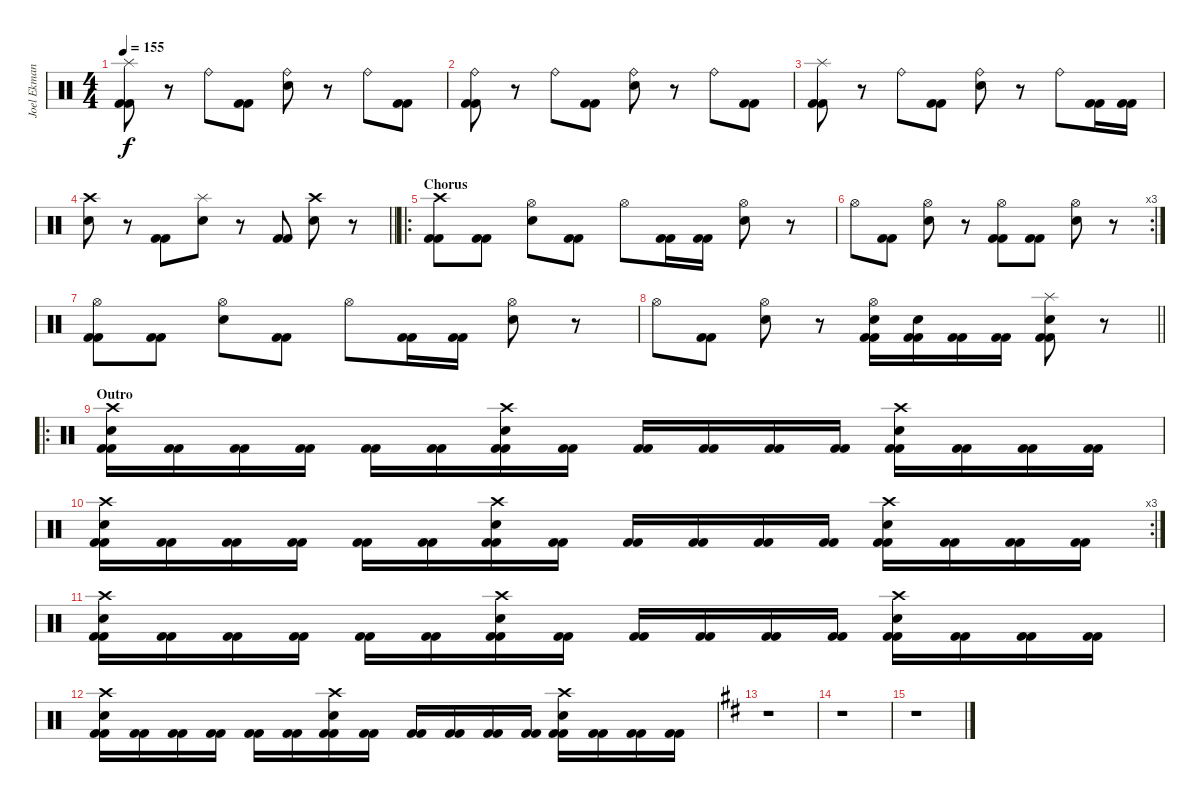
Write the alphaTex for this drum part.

\track ("Joel Ekman-percussion tab" "Joel Ekman") {instrument percussion}
\staff {score}
\articulation defaults
\ts (4 4)
\tempo 155
\clef neutral
\ks c
("Splash (hit)" "Kick (hit) 2" "Kick (hit) 2").8{dy f} r.8 "Ride (bell)".8 ("Kick (hit) 2" "Kick (hit) 2").8 ("Ride (bell)" "Snare (hit) 2").8 r.8 "Ride (bell)".8 ("Kick (hit) 2" "Kick (hit) 2").8 |
("Ride (bell)" "Kick (hit) 2" "Kick (hit) 2").8 r.8 "Ride (bell)".8 ("Kick (hit) 2" "Kick (hit) 2").8 ("Ride (bell)" "Snare (hit) 2").8 r.8 "Ride (bell)".8 ("Kick (hit) 2" "Kick (hit) 2").8 |
("Splash (hit)" "Kick (hit) 2" "Kick (hit) 2").8 r.8 "Ride (bell)".8 ("Kick (hit) 2" "Kick (hit) 2").8 ("Ride (bell)" "Snare (hit) 2").8 r.8 "Ride (bell)".8 ("Kick (hit) 2" "Kick (hit) 2").16 ("Kick (hit) 2" "Kick (hit) 2").16 |
\barLineRight lightlight
("Crash high (hit)" "Snare (hit) 2").8 r.8 ("Kick (hit) 2" "Kick (hit) 2").8 ("Splash (hit)" "Snare (hit) 2").8 r.8 ("Kick (hit) 2" "Kick (hit) 2").8 ("Crash high (hit)" "Snare (hit) 2").8 r.8 |
\ro
\section ("" "Chorus")
("Crash high (hit)" "Kick (hit) 2" "Kick (hit) 2").8 ("Kick (hit) 2" "Kick (hit) 2").8 ("Hi-Hat (open)" "Snare (hit) 2").8 ("Kick (hit) 2" "Kick (hit) 2").8 "Hi-Hat (open)".8 ("Kick (hit) 2" "Kick (hit) 2").16 ("Kick (hit) 2" "Kick (hit) 2").16 ("Hi-Hat (open)" "Snare (hit) 2").8 r.8 |
\rc 3 "Hi-Hat (open)".8
("Kick (hit) 2" "Kick (hit) 2").8 ("Hi-Hat (open)" "Snare (hit) 2").8 r.8 ("Hi-Hat (open)" "Kick (hit) 2" "Kick (hit) 2").8 ("Kick (hit) 2" "Kick (hit) 2").8 ("Hi-Hat (open)" "Snare (hit) 2").8 r.8 |
("Hi-Hat (open)" "Kick (hit) 2" "Kick (hit) 2").8 ("Kick (hit) 2" "Kick (hit) 2").8 ("Hi-Hat (open)" "Snare (hit) 2").8 ("Kick (hit) 2" "Kick (hit) 2").8 "Hi-Hat (open)".8 ("Kick (hit) 2" "Kick (hit) 2").16 ("Kick (hit) 2" "Kick (hit) 2").16 ("Hi-Hat (open)" "Snare (hit) 2").8 r.8 |
\barLineRight lightlight "Hi-Hat (open)".8
("Kick (hit) 2" "Kick (hit) 2").8 ("Hi-Hat (open)" "Snare (hit) 2").8 r.8 ("Hi-Hat (open)" "Snare (hit) 2" "Kick (hit) 2" "Kick (hit) 2").16 ("Snare (hit) 2" "Kick (hit) 2" "Kick (hit) 2").16 ("Kick (hit) 2" "Kick (hit) 2").16 ("Kick (hit) 2" "Kick (hit) 2").16 ("Splash (hit)" "Snare (hit) 2" "Kick (hit) 2" "Kick (hit) 2").8 r.8 |
\ro
\section ("" "Outro")
("Crash high (hit)" "Snare (hit) 2" "Kick (hit) 2" "Kick (hit) 2").16 ("Kick (hit) 2" "Kick (hit) 2").16 ("Kick (hit) 2" "Kick (hit) 2").16 ("Kick (hit) 2" "Kick (hit) 2").16 ("Kick (hit) 2" "Kick (hit) 2").16 ("Kick (hit) 2" "Kick (hit) 2").16 ("Crash high (hit)" "Snare (hit) 2" "Kick (hit) 2" "Kick (hit) 2").16 ("Kick (hit) 2" "Kick (hit) 2").16 ("Kick (hit) 2" "Kick (hit) 2").16 ("Kick (hit) 2" "Kick (hit) 2").16 ("Kick (hit) 2" "Kick (hit) 2").16 ("Kick (hit) 2" "Kick (hit) 2").16 ("Crash high (hit)" "Snare (hit) 2" "Kick (hit) 2" "Kick (hit) 2").16 ("Kick (hit) 2" "Kick (hit) 2").16 ("Kick (hit) 2" "Kick (hit) 2").16 ("Kick (hit) 2" "Kick (hit) 2").16 |
\rc 3
("Crash high (hit)" "Snare (hit) 2" "Kick (hit) 2" "Kick (hit) 2").16 ("Kick (hit) 2" "Kick (hit) 2").16 ("Kick (hit) 2" "Kick (hit) 2").16 ("Kick (hit) 2" "Kick (hit) 2").16 ("Kick (hit) 2" "Kick (hit) 2").16 ("Kick (hit) 2" "Kick (hit) 2").16 ("Crash high (hit)" "Snare (hit) 2" "Kick (hit) 2" "Kick (hit) 2").16 ("Kick (hit) 2" "Kick (hit) 2").16 ("Kick (hit) 2" "Kick (hit) 2").16 ("Kick (hit) 2" "Kick (hit) 2").16 ("Kick (hit) 2" "Kick (hit) 2").16 ("Kick (hit) 2" "Kick (hit) 2").16 ("Crash high (hit)" "Snare (hit) 2" "Kick (hit) 2" "Kick (hit) 2").16 ("Kick (hit) 2" "Kick (hit) 2").16 ("Kick (hit) 2" "Kick (hit) 2").16 ("Kick (hit) 2" "Kick (hit) 2").16 |
("Crash high (hit)" "Snare (hit) 2" "Kick (hit) 2" "Kick (hit) 2").16 ("Kick (hit) 2" "Kick (hit) 2").16 ("Kick (hit) 2" "Kick (hit) 2").16 ("Kick (hit) 2" "Kick (hit) 2").16 ("Kick (hit) 2" "Kick (hit) 2").16 ("Kick (hit) 2" "Kick (hit) 2").16 ("Crash high (hit)" "Snare (hit) 2" "Kick (hit) 2" "Kick (hit) 2").16 ("Kick (hit) 2" "Kick (hit) 2").16 ("Kick (hit) 2" "Kick (hit) 2").16 ("Kick (hit) 2" "Kick (hit) 2").16 ("Kick (hit) 2" "Kick (hit) 2").16 ("Kick (hit) 2" "Kick (hit) 2").16 ("Crash high (hit)" "Snare (hit) 2" "Kick (hit) 2" "Kick (hit) 2").16 ("Kick (hit) 2" "Kick (hit) 2").16 ("Kick (hit) 2" "Kick (hit) 2").16 ("Kick (hit) 2" "Kick (hit) 2").16 |
("Crash high (hit)" "Snare (hit) 2" "Kick (hit) 2" "Kick (hit) 2").16 ("Kick (hit) 2" "Kick (hit) 2").16 ("Kick (hit) 2" "Kick (hit) 2").16 ("Kick (hit) 2" "Kick (hit) 2").16 ("Kick (hit) 2" "Kick (hit) 2").16 ("Kick (hit) 2" "Kick (hit) 2").16 ("Crash high (hit)" "Snare (hit) 2" "Kick (hit) 2" "Kick (hit) 2").16 ("Kick (hit) 2" "Kick (hit) 2").16 ("Kick (hit) 2" "Kick (hit) 2").16 ("Kick (hit) 2" "Kick (hit) 2").16 ("Kick (hit) 2" "Kick (hit) 2").16 ("Kick (hit) 2" "Kick (hit) 2").16 ("Crash high (hit)" "Snare (hit) 2" "Kick (hit) 2" "Kick (hit) 2").16 ("Kick (hit) 2" "Kick (hit) 2").16 ("Kick (hit) 2" "Kick (hit) 2").16 ("Kick (hit) 2" "Kick (hit) 2").16 |
\ks d
r.1 |
r.1 |
r.1
